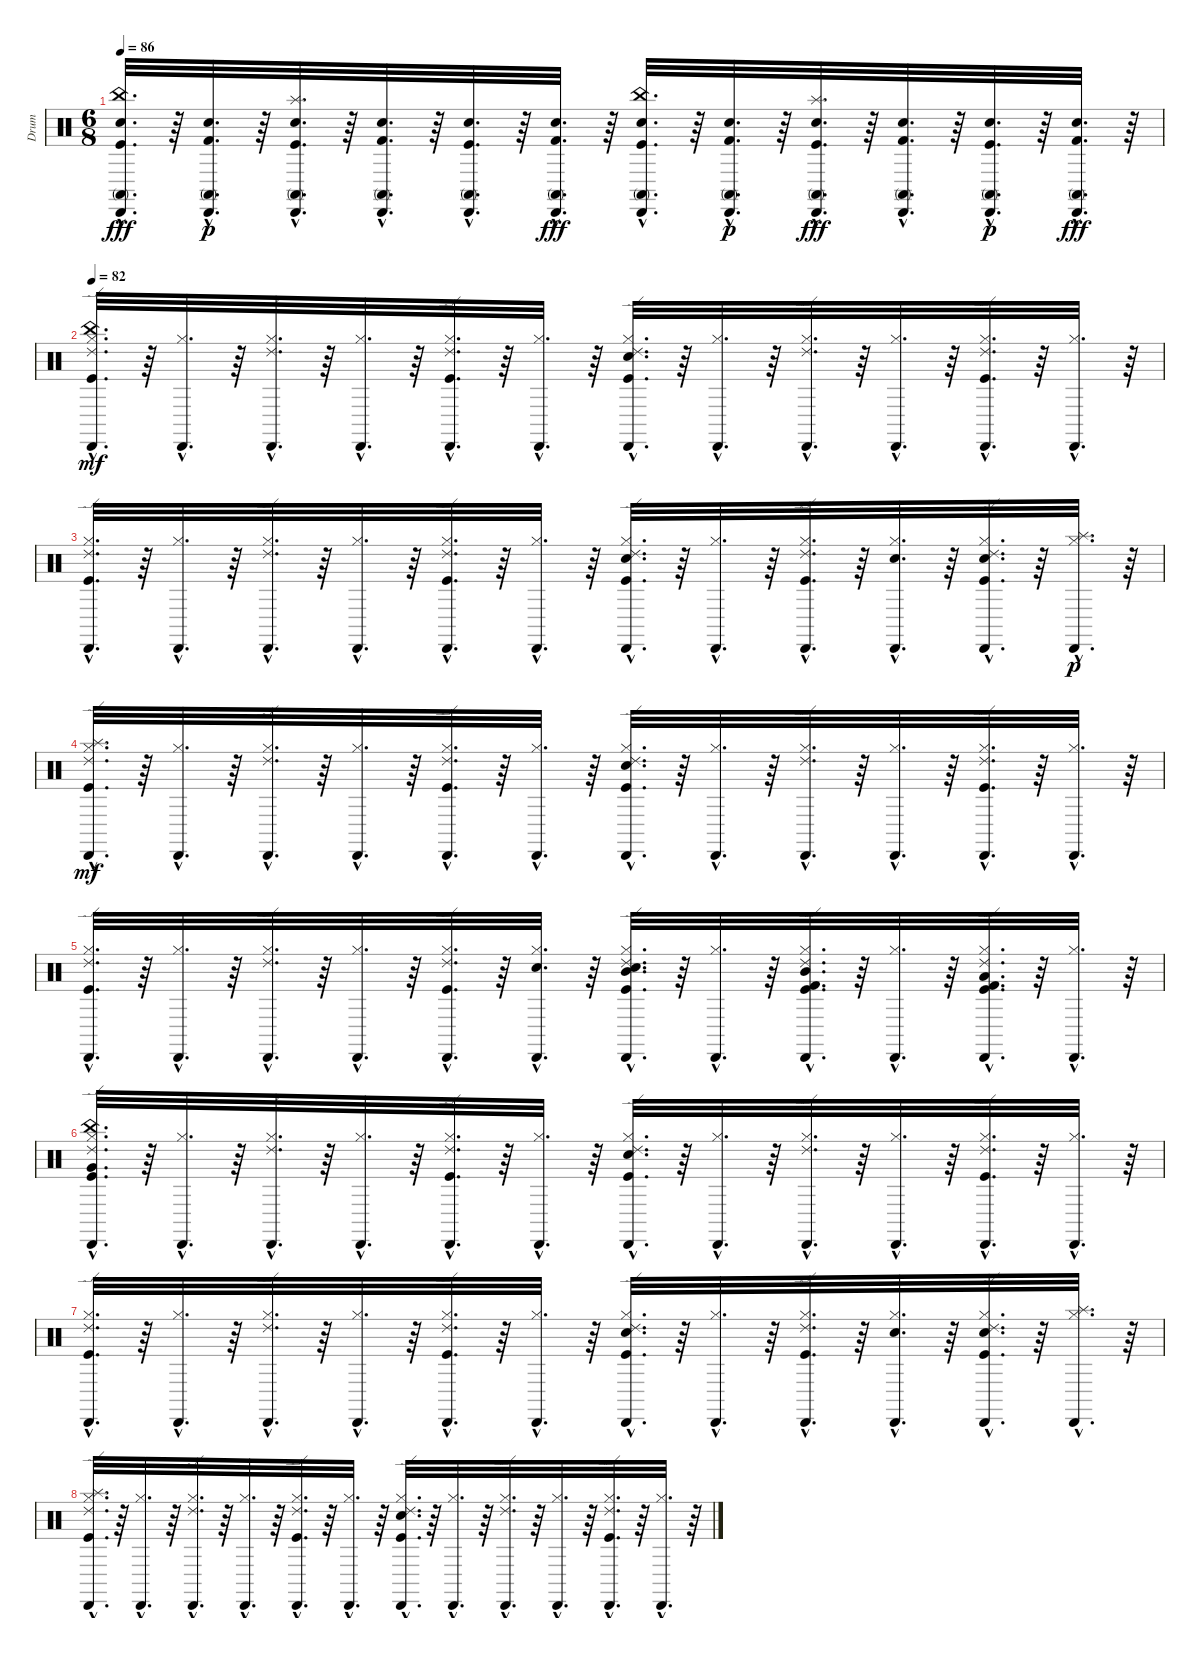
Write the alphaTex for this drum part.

\track ("Drum" "Drum") {instrument percussion}
\staff {score}
\articulation defaults
\ts (6 8)
\tempo 86
\clef neutral
\ks c
("China (hit)"{hac} "Conga high (mute)"{hac} "Cabasa (hit)"{hac} "Kick (hit)"{hac} "Electric Snare (hit)"{hac}).32{d dy fff} r.64 ("Conga high (mute)"{hac} "Cabasa (hit)"{hac} "Kick (hit) 2"{hac} "Electric Snare (hit)"{hac}).32{d dy p} r.64 ("Splash (hit)"{hac} "Conga high (mute)"{hac} "Cabasa (hit)"{hac} "Kick (hit)"{hac} "Electric Snare (hit)"{hac}).32{d} r.64 ("Conga high (mute)"{hac} "Cabasa (hit)"{hac} "Kick (hit) 2"{hac} "Electric Snare (hit)"{hac}).32{d} r.64 ("Conga high (mute)"{hac} "Cabasa (hit)"{hac} "Kick (hit)"{hac} "Electric Snare (hit)"{hac}).32{d} r.64 ("Conga high (mute)"{hac} "Cabasa (hit)"{hac} "Kick (hit) 2"{hac} "Electric Snare (hit)"{hac}).32{d dy fff} r.64 ("China (hit)"{hac} "Conga high (mute)"{hac} "Cabasa (hit)"{hac} "Kick (hit)"{hac} "Electric Snare (hit)"{hac}).32{d} r.64 ("Conga high (mute)"{hac} "Cabasa (hit)"{hac} "Kick (hit) 2"{hac} "Electric Snare (hit)"{hac}).32{d dy p} r.64 ("Conga high (mute)"{hac} "Cabasa (hit)"{hac} "Kick (hit)"{hac} "Electric Snare (hit)"{hac} "Splash (hit)"{hac}).32{d dy fff} r.64 ("Conga high (mute)"{hac} "Cabasa (hit)"{hac} "Kick (hit) 2"{hac} "Electric Snare (hit)"{hac}).32{d} r.64 ("Conga high (mute)"{hac} "Cabasa (hit)"{hac} "Kick (hit)"{hac} "Electric Snare (hit)"{hac}).32{d dy p} r.64 ("Conga high (mute)"{hac} "Cabasa (hit)"{hac} "Kick (hit) 2"{hac} "Electric Snare (hit)"{hac}).32{d dy fff} r.64 |
\tempo 82
("Hi-Hat (closed)"{hac} "Kick (hit)"{hac} "China (hit)"{hac} "Ride (edge) 2"{hac} "Cabasa (hit)"{hac}).32{d dy mf} r.64 ("Hi-Hat (closed)"{hac} "Cabasa (hit)"{hac}).32{d} r.64 ("Hi-Hat (closed)"{hac} "Ride (edge) 2"{hac} "Cabasa (hit)"{hac}).32{d} r.64 ("Hi-Hat (closed)"{hac} "Cabasa (hit)"{hac}).32{d} r.64 ("Hi-Hat (closed)"{hac} "Kick (hit)"{hac} "Ride (edge) 2"{hac} "Cabasa (hit)"{hac}).32{d} r.64 ("Hi-Hat (closed)"{hac} "Cabasa (hit)"{hac}).32{d} r.64 ("Hi-Hat (closed)"{hac} "Snare (hit) 2"{hac} "Kick (hit)"{hac} "Ride (edge) 2"{hac} "Cabasa (hit)"{hac}).32{d} r.64 ("Hi-Hat (closed)"{hac} "Cabasa (hit)"{hac}).32{d} r.64 ("Hi-Hat (closed)"{hac} "Ride (edge) 2"{hac} "Cabasa (hit)"{hac}).32{d} r.64 ("Hi-Hat (closed)"{hac} "Cabasa (hit)"{hac}).32{d} r.64 ("Hi-Hat (closed)"{hac} "Kick (hit)"{hac} "Ride (edge) 2"{hac} "Cabasa (hit)"{hac}).32{d} r.64 ("Hi-Hat (closed)"{hac} "Cabasa (hit)"{hac}).32{d} r.64 |
("Hi-Hat (closed)"{hac} "Kick (hit)"{hac} "Ride (edge) 2"{hac} "Cabasa (hit)"{hac}).32{d} r.64 ("Hi-Hat (closed)"{hac} "Cabasa (hit)"{hac}).32{d} r.64 ("Hi-Hat (closed)"{hac} "Ride (edge) 2"{hac} "Cabasa (hit)"{hac}).32{d} r.64 ("Hi-Hat (closed)"{hac} "Cabasa (hit)"{hac}).32{d} r.64 ("Hi-Hat (closed)"{hac} "Kick (hit)"{hac} "Ride (edge) 2"{hac} "Cabasa (hit)"{hac}).32{d} r.64 ("Hi-Hat (closed)"{hac} "Cabasa (hit)"{hac}).32{d} r.64 ("Hi-Hat (closed)"{hac} "Snare (hit) 2"{hac} "Kick (hit)"{hac} "Ride (edge) 2"{hac} "Cabasa (hit)"{hac}).32{d} r.64 ("Hi-Hat (closed)"{hac} "Cabasa (hit)"{hac}).32{d} r.64 ("Hi-Hat (closed)"{hac} "Kick (hit)"{hac} "Ride (edge) 2"{hac} "Cabasa (hit)"{hac}).32{d} r.64 ("Hi-Hat (closed)"{hac} "Snare (hit) 2"{hac} "Cabasa (hit)"{hac}).32{d} r.64 ("Hi-Hat (closed)"{hac} "Snare (hit) 2"{hac} "Kick (hit)"{hac} "Ride (edge) 2"{hac} "Cabasa (hit)"{hac}).32{d} r.64 ("Hi-Hat (closed)"{hac} "Splash (hit)"{hac} "Cabasa (hit)"{hac}).32{d dy p} r.64 |
("Cabasa (hit)"{hac} "Ride (edge) 2"{hac} "Splash (hit)"{hac} "Kick (hit)"{hac} "Hi-Hat (closed)"{hac}).32{d dy mf} r.64 ("Cabasa (hit)"{hac} "Hi-Hat (closed)"{hac}).32{d} r.64 ("Cabasa (hit)"{hac} "Ride (edge) 2"{hac} "Hi-Hat (closed)"{hac}).32{d} r.64 ("Cabasa (hit)"{hac} "Hi-Hat (closed)"{hac}).32{d} r.64 ("Cabasa (hit)"{hac} "Ride (edge) 2"{hac} "Kick (hit)"{hac} "Hi-Hat (closed)"{hac}).32{d} r.64 ("Cabasa (hit)"{hac} "Hi-Hat (closed)"{hac}).32{d} r.64 ("Cabasa (hit)"{hac} "Ride (edge) 2"{hac} "Kick (hit)"{hac} "Snare (hit) 2"{hac} "Hi-Hat (closed)"{hac}).32{d} r.64 ("Cabasa (hit)"{hac} "Hi-Hat (closed)"{hac}).32{d} r.64 ("Cabasa (hit)"{hac} "Ride (edge) 2"{hac} "Hi-Hat (closed)"{hac}).32{d} r.64 ("Cabasa (hit)"{hac} "Hi-Hat (closed)"{hac}).32{d} r.64 ("Cabasa (hit)"{hac} "Ride (edge) 2"{hac} "Kick (hit)"{hac} "Hi-Hat (closed)"{hac}).32{d} r.64 ("Cabasa (hit)"{hac} "Hi-Hat (closed)"{hac}).32{d} r.64 |
("Hi-Hat (closed)"{hac} "Kick (hit)"{hac} "Ride (edge) 2"{hac} "Cabasa (hit)"{hac}).32{d} r.64 ("Hi-Hat (closed)"{hac} "Cabasa (hit)"{hac}).32{d} r.64 ("Hi-Hat (closed)"{hac} "Ride (edge) 2"{hac} "Cabasa (hit)"{hac}).32{d} r.64 ("Hi-Hat (closed)"{hac} "Cabasa (hit)"{hac}).32{d} r.64 ("Hi-Hat (closed)"{hac} "Kick (hit)"{hac} "Ride (edge) 2"{hac} "Cabasa (hit)"{hac}).32{d} r.64 ("Hi-Hat (closed)"{hac} "Snare (hit) 2"{hac} "Cabasa (hit)"{hac}).32{d} r.64 ("Hi-Hat (closed)"{hac} "Snare (hit) 2"{hac} "Kick (hit)"{hac} "Mid Tom (hit)"{hac} "Ride (edge) 2"{hac} "Cabasa (hit)"{hac}).32{d} r.64 ("Hi-Hat (closed)"{hac} "Cabasa (hit)"{hac}).32{d} r.64 ("Hi-Hat (closed)"{hac} "Kick (hit)"{hac} "Mid Tom (hit)"{hac} "Kick (hit) 2"{hac} "Ride (edge) 2"{hac} "Cabasa (hit)"{hac}).32{d} r.64 ("Hi-Hat (closed)"{hac} "Cabasa (hit)"{hac}).32{d} r.64 ("Hi-Hat (closed)"{hac} "Low Tom (hit)"{hac} "Kick (hit)"{hac} "Kick (hit) 2"{hac} "Ride (edge) 2"{hac} "Cabasa (hit)"{hac}).32{d} r.64 ("Hi-Hat (closed)"{hac} "Cabasa (hit)"{hac}).32{d} r.64 |
("Cabasa (hit)"{hac} "Ride (edge) 2"{hac} "China (hit)"{hac} "Kick (hit)"{hac} "Hi-Hat (closed)"{hac} "Very Low Tom (hit)"{hac}).32{d} r.64 ("Cabasa (hit)"{hac} "Hi-Hat (closed)"{hac}).32{d} r.64 ("Cabasa (hit)"{hac} "Ride (edge) 2"{hac} "Hi-Hat (closed)"{hac}).32{d} r.64 ("Cabasa (hit)"{hac} "Hi-Hat (closed)"{hac}).32{d} r.64 ("Cabasa (hit)"{hac} "Ride (edge) 2"{hac} "Kick (hit)"{hac} "Hi-Hat (closed)"{hac}).32{d} r.64 ("Cabasa (hit)"{hac} "Hi-Hat (closed)"{hac}).32{d} r.64 ("Cabasa (hit)"{hac} "Ride (edge) 2"{hac} "Kick (hit)"{hac} "Snare (hit) 2"{hac} "Hi-Hat (closed)"{hac}).32{d} r.64 ("Cabasa (hit)"{hac} "Hi-Hat (closed)"{hac}).32{d} r.64 ("Cabasa (hit)"{hac} "Ride (edge) 2"{hac} "Hi-Hat (closed)"{hac}).32{d} r.64 ("Cabasa (hit)"{hac} "Hi-Hat (closed)"{hac}).32{d} r.64 ("Cabasa (hit)"{hac} "Ride (edge) 2"{hac} "Kick (hit)"{hac} "Hi-Hat (closed)"{hac}).32{d} r.64 ("Cabasa (hit)"{hac} "Hi-Hat (closed)"{hac}).32{d} r.64 |
("Cabasa (hit)"{hac} "Ride (edge) 2"{hac} "Kick (hit)"{hac} "Hi-Hat (closed)"{hac}).32{d} r.64 ("Cabasa (hit)"{hac} "Hi-Hat (closed)"{hac}).32{d} r.64 ("Cabasa (hit)"{hac} "Ride (edge) 2"{hac} "Hi-Hat (closed)"{hac}).32{d} r.64 ("Cabasa (hit)"{hac} "Hi-Hat (closed)"{hac}).32{d} r.64 ("Cabasa (hit)"{hac} "Ride (edge) 2"{hac} "Kick (hit)"{hac} "Hi-Hat (closed)"{hac}).32{d} r.64 ("Cabasa (hit)"{hac} "Hi-Hat (closed)"{hac}).32{d} r.64 ("Cabasa (hit)"{hac} "Ride (edge) 2"{hac} "Kick (hit)"{hac} "Snare (hit) 2"{hac} "Hi-Hat (closed)"{hac}).32{d} r.64 ("Cabasa (hit)"{hac} "Hi-Hat (closed)"{hac}).32{d} r.64 ("Cabasa (hit)"{hac} "Ride (edge) 2"{hac} "Kick (hit)"{hac} "Hi-Hat (closed)"{hac}).32{d} r.64 ("Cabasa (hit)"{hac} "Snare (hit) 2"{hac} "Hi-Hat (closed)"{hac}).32{d} r.64 ("Cabasa (hit)"{hac} "Ride (edge) 2"{hac} "Kick (hit)"{hac} "Snare (hit) 2"{hac} "Hi-Hat (closed)"{hac}).32{d} r.64 ("Cabasa (hit)"{hac} "Splash (hit)"{hac} "Hi-Hat (closed)"{hac}).32{d} r.64 |
("Hi-Hat (closed)"{hac} "Kick (hit)"{hac} "Splash (hit)"{hac} "Ride (edge) 2"{hac} "Cabasa (hit)"{hac}).32{d} r.64 ("Hi-Hat (closed)"{hac} "Cabasa (hit)"{hac}).32{d} r.64 ("Hi-Hat (closed)"{hac} "Ride (edge) 2"{hac} "Cabasa (hit)"{hac}).32{d} r.64 ("Hi-Hat (closed)"{hac} "Cabasa (hit)"{hac}).32{d} r.64 ("Hi-Hat (closed)"{hac} "Kick (hit)"{hac} "Ride (edge) 2"{hac} "Cabasa (hit)"{hac}).32{d} r.64 ("Hi-Hat (closed)"{hac} "Cabasa (hit)"{hac}).32{d} r.64 ("Hi-Hat (closed)"{hac} "Snare (hit) 2"{hac} "Kick (hit)"{hac} "Ride (edge) 2"{hac} "Cabasa (hit)"{hac}).32{d} r.64 ("Hi-Hat (closed)"{hac} "Cabasa (hit)"{hac}).32{d} r.64 ("Hi-Hat (closed)"{hac} "Ride (edge) 2"{hac} "Cabasa (hit)"{hac}).32{d} r.64 ("Hi-Hat (closed)"{hac} "Cabasa (hit)"{hac}).32{d} r.64 ("Hi-Hat (closed)"{hac} "Kick (hit)"{hac} "Ride (edge) 2"{hac} "Cabasa (hit)"{hac}).32{d} r.64 ("Hi-Hat (closed)"{hac} "Cabasa (hit)"{hac}).32{d} r.64
